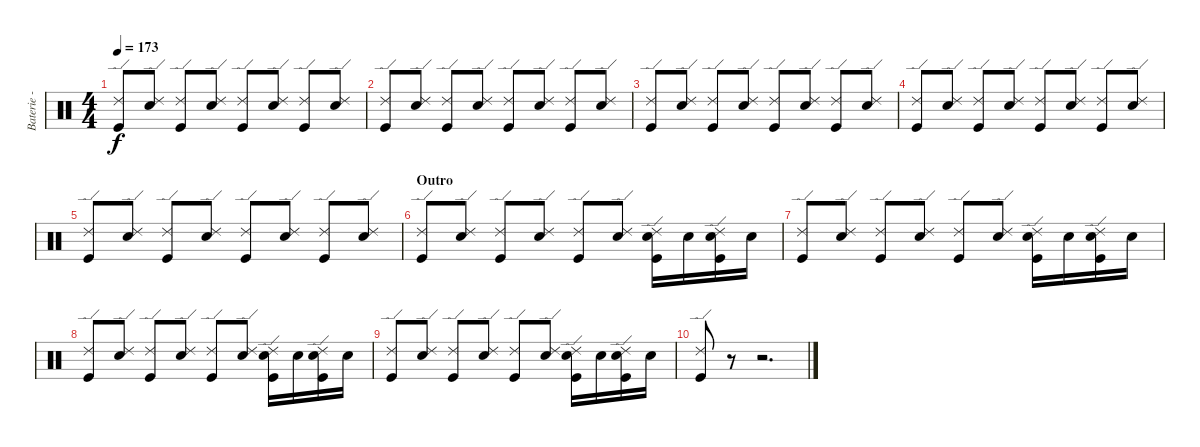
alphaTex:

\track ("Baterie - Guillaume" "Baterie - ") {instrument percussion}
\staff {score}
\articulation defaults
\ts (4 4)
\tempo 173
\clef neutral
\ks c
("Ride (edge) 2" "Kick (hit)").8{dy f} ("Ride (edge) 2" "Snare (hit) 2").8 ("Ride (edge) 2" "Kick (hit)").8 ("Ride (edge) 2" "Snare (hit) 2").8 ("Ride (edge) 2" "Kick (hit)").8 ("Ride (edge) 2" "Snare (hit) 2").8 ("Ride (edge) 2" "Kick (hit)").8 ("Ride (edge) 2" "Snare (hit) 2").8 |
("Ride (edge) 2" "Kick (hit)").8 ("Ride (edge) 2" "Snare (hit) 2").8 ("Ride (edge) 2" "Kick (hit)").8 ("Ride (edge) 2" "Snare (hit) 2").8 ("Ride (edge) 2" "Kick (hit)").8 ("Ride (edge) 2" "Snare (hit) 2").8 ("Ride (edge) 2" "Kick (hit)").8 ("Ride (edge) 2" "Snare (hit) 2").8 |
("Ride (edge) 2" "Kick (hit)").8 ("Ride (edge) 2" "Snare (hit) 2").8 ("Ride (edge) 2" "Kick (hit)").8 ("Ride (edge) 2" "Snare (hit) 2").8 ("Ride (edge) 2" "Kick (hit)").8 ("Ride (edge) 2" "Snare (hit) 2").8 ("Ride (edge) 2" "Kick (hit)").8 ("Ride (edge) 2" "Snare (hit) 2").8 |
("Ride (edge) 2" "Kick (hit)").8 ("Ride (edge) 2" "Snare (hit) 2").8 ("Ride (edge) 2" "Kick (hit)").8 ("Ride (edge) 2" "Snare (hit) 2").8 ("Ride (edge) 2" "Kick (hit)").8 ("Ride (edge) 2" "Snare (hit) 2").8 ("Ride (edge) 2" "Kick (hit)").8 ("Ride (edge) 2" "Snare (hit) 2").8 |
("Ride (edge) 2" "Kick (hit)").8 ("Ride (edge) 2" "Snare (hit) 2").8 ("Ride (edge) 2" "Kick (hit)").8 ("Ride (edge) 2" "Snare (hit) 2").8 ("Ride (edge) 2" "Kick (hit)").8 ("Ride (edge) 2" "Snare (hit) 2").8 ("Ride (edge) 2" "Kick (hit)").8 ("Ride (edge) 2" "Snare (hit) 2").8 |
\section ("" "Outro")
("Ride (edge) 2" "Kick (hit)").8 ("Ride (edge) 2" "Snare (hit) 2").8 ("Ride (edge) 2" "Kick (hit)").8 ("Ride (edge) 2" "Snare (hit) 2").8 ("Ride (edge) 2" "Kick (hit)").8 ("Ride (edge) 2" "Snare (hit) 2").8 ("Ride (edge) 2" "Snare (hit) 2" "Kick (hit)").16 "Snare (hit) 2".16 ("Ride (edge) 2" "Snare (hit) 2" "Kick (hit)").16 "Snare (hit) 2".16 |
("Ride (edge) 2" "Kick (hit)").8 ("Ride (edge) 2" "Snare (hit) 2").8 ("Ride (edge) 2" "Kick (hit)").8 ("Ride (edge) 2" "Snare (hit) 2").8 ("Ride (edge) 2" "Kick (hit)").8 ("Ride (edge) 2" "Snare (hit) 2").8 ("Ride (edge) 2" "Snare (hit) 2" "Kick (hit)").16 "Snare (hit) 2".16 ("Ride (edge) 2" "Snare (hit) 2" "Kick (hit)").16 "Snare (hit) 2".16 |
("Ride (edge) 2" "Kick (hit)").8 ("Ride (edge) 2" "Snare (hit) 2").8 ("Ride (edge) 2" "Kick (hit)").8 ("Ride (edge) 2" "Snare (hit) 2").8 ("Ride (edge) 2" "Kick (hit)").8 ("Ride (edge) 2" "Snare (hit) 2").8 ("Ride (edge) 2" "Snare (hit) 2" "Kick (hit)").16 "Snare (hit) 2".16 ("Ride (edge) 2" "Snare (hit) 2" "Kick (hit)").16 "Snare (hit) 2".16 |
("Ride (edge) 2" "Kick (hit)").8 ("Ride (edge) 2" "Snare (hit) 2").8 ("Ride (edge) 2" "Kick (hit)").8 ("Ride (edge) 2" "Snare (hit) 2").8 ("Ride (edge) 2" "Kick (hit)").8 ("Ride (edge) 2" "Snare (hit) 2").8 ("Ride (edge) 2" "Snare (hit) 2" "Kick (hit)").16 "Snare (hit) 2".16 ("Ride (edge) 2" "Snare (hit) 2" "Kick (hit)").16 "Snare (hit) 2".16 |
("Ride (edge) 2" "Kick (hit)").8 r.8 r.2{d}
